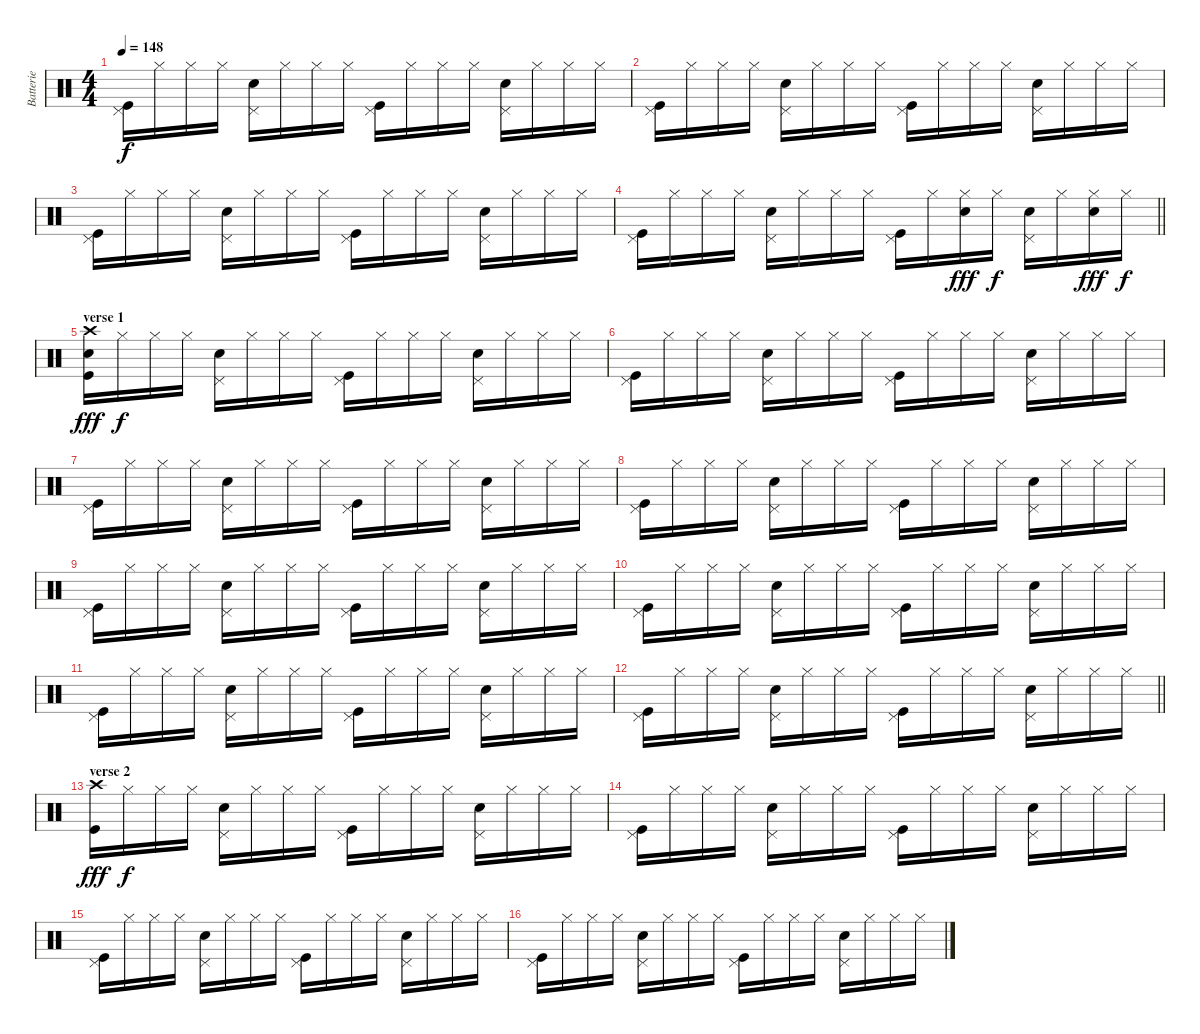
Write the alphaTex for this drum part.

\track ("Batterie" "Batterie") {instrument percussion}
\staff {score}
\articulation defaults
\ts (4 4)
\tempo 148
\clef neutral
\ks c
("Pedal Hi-Hat (hit)" "Kick (hit)").16{dy f} "Hi-Hat (closed)".16 "Hi-Hat (closed)".16 "Hi-Hat (closed)".16 ("Pedal Hi-Hat (hit)" "Electric Snare (hit)").16 "Hi-Hat (closed)".16 "Hi-Hat (closed)".16 "Hi-Hat (closed)".16 ("Pedal Hi-Hat (hit)" "Kick (hit)").16 "Hi-Hat (closed)".16 "Hi-Hat (closed)".16 "Hi-Hat (closed)".16 ("Pedal Hi-Hat (hit)" "Electric Snare (hit)").16 "Hi-Hat (closed)".16 "Hi-Hat (closed)".16 "Hi-Hat (closed)".16 |
("Pedal Hi-Hat (hit)" "Kick (hit)").16 "Hi-Hat (closed)".16 "Hi-Hat (closed)".16 "Hi-Hat (closed)".16 ("Pedal Hi-Hat (hit)" "Electric Snare (hit)").16 "Hi-Hat (closed)".16 "Hi-Hat (closed)".16 "Hi-Hat (closed)".16 ("Pedal Hi-Hat (hit)" "Kick (hit)").16 "Hi-Hat (closed)".16 "Hi-Hat (closed)".16 "Hi-Hat (closed)".16 ("Pedal Hi-Hat (hit)" "Electric Snare (hit)").16 "Hi-Hat (closed)".16 "Hi-Hat (closed)".16 "Hi-Hat (closed)".16 |
("Pedal Hi-Hat (hit)" "Kick (hit)").16 "Hi-Hat (closed)".16 "Hi-Hat (closed)".16 "Hi-Hat (closed)".16 ("Pedal Hi-Hat (hit)" "Electric Snare (hit)").16 "Hi-Hat (closed)".16 "Hi-Hat (closed)".16 "Hi-Hat (closed)".16 ("Pedal Hi-Hat (hit)" "Kick (hit)").16 "Hi-Hat (closed)".16 "Hi-Hat (closed)".16 "Hi-Hat (closed)".16 ("Pedal Hi-Hat (hit)" "Electric Snare (hit)").16 "Hi-Hat (closed)".16 "Hi-Hat (closed)".16 "Hi-Hat (closed)".16 |
\barLineRight lightlight
("Pedal Hi-Hat (hit)" "Kick (hit)").16 "Hi-Hat (closed)".16 "Hi-Hat (closed)".16 "Hi-Hat (closed)".16 ("Pedal Hi-Hat (hit)" "Electric Snare (hit)").16 "Hi-Hat (closed)".16 "Hi-Hat (closed)".16 "Hi-Hat (closed)".16 ("Pedal Hi-Hat (hit)" "Kick (hit)").16 "Hi-Hat (closed)".16 ("Hi-Hat (closed)" "Electric Snare (hit)").16{dy fff} "Hi-Hat (closed)".16{dy f} ("Pedal Hi-Hat (hit)" "Electric Snare (hit)").16 "Hi-Hat (closed)".16 ("Hi-Hat (closed)" "Electric Snare (hit)").16{dy fff} "Hi-Hat (closed)".16{dy f} |
\section ("" "verse 1")
("Crash high (hit)" "Electric Snare (hit)" "Kick (hit)").16{dy fff} "Hi-Hat (closed)".16{dy f} "Hi-Hat (closed)".16 "Hi-Hat (closed)".16 ("Pedal Hi-Hat (hit)" "Electric Snare (hit)").16 "Hi-Hat (closed)".16 "Hi-Hat (closed)".16 "Hi-Hat (closed)".16 ("Pedal Hi-Hat (hit)" "Kick (hit)").16 "Hi-Hat (closed)".16 "Hi-Hat (closed)".16 "Hi-Hat (closed)".16 ("Pedal Hi-Hat (hit)" "Electric Snare (hit)").16 "Hi-Hat (closed)".16 "Hi-Hat (closed)".16 "Hi-Hat (closed)".16 |
("Pedal Hi-Hat (hit)" "Kick (hit)").16 "Hi-Hat (closed)".16 "Hi-Hat (closed)".16 "Hi-Hat (closed)".16 ("Pedal Hi-Hat (hit)" "Electric Snare (hit)").16 "Hi-Hat (closed)".16 "Hi-Hat (closed)".16 "Hi-Hat (closed)".16 ("Pedal Hi-Hat (hit)" "Kick (hit)").16 "Hi-Hat (closed)".16 "Hi-Hat (closed)".16 "Hi-Hat (closed)".16 ("Pedal Hi-Hat (hit)" "Electric Snare (hit)").16 "Hi-Hat (closed)".16 "Hi-Hat (closed)".16 "Hi-Hat (closed)".16 |
("Pedal Hi-Hat (hit)" "Kick (hit)").16 "Hi-Hat (closed)".16 "Hi-Hat (closed)".16 "Hi-Hat (closed)".16 ("Pedal Hi-Hat (hit)" "Electric Snare (hit)").16 "Hi-Hat (closed)".16 "Hi-Hat (closed)".16 "Hi-Hat (closed)".16 ("Pedal Hi-Hat (hit)" "Kick (hit)").16 "Hi-Hat (closed)".16 "Hi-Hat (closed)".16 "Hi-Hat (closed)".16 ("Pedal Hi-Hat (hit)" "Electric Snare (hit)").16 "Hi-Hat (closed)".16 "Hi-Hat (closed)".16 "Hi-Hat (closed)".16 |
("Pedal Hi-Hat (hit)" "Kick (hit)").16 "Hi-Hat (closed)".16 "Hi-Hat (closed)".16 "Hi-Hat (closed)".16 ("Pedal Hi-Hat (hit)" "Electric Snare (hit)").16 "Hi-Hat (closed)".16 "Hi-Hat (closed)".16 "Hi-Hat (closed)".16 ("Pedal Hi-Hat (hit)" "Kick (hit)").16 "Hi-Hat (closed)".16 "Hi-Hat (closed)".16 "Hi-Hat (closed)".16 ("Pedal Hi-Hat (hit)" "Electric Snare (hit)").16 "Hi-Hat (closed)".16 "Hi-Hat (closed)".16 "Hi-Hat (closed)".16 |
("Pedal Hi-Hat (hit)" "Kick (hit)").16 "Hi-Hat (closed)".16 "Hi-Hat (closed)".16 "Hi-Hat (closed)".16 ("Pedal Hi-Hat (hit)" "Electric Snare (hit)").16 "Hi-Hat (closed)".16 "Hi-Hat (closed)".16 "Hi-Hat (closed)".16 ("Pedal Hi-Hat (hit)" "Kick (hit)").16 "Hi-Hat (closed)".16 "Hi-Hat (closed)".16 "Hi-Hat (closed)".16 ("Pedal Hi-Hat (hit)" "Electric Snare (hit)").16 "Hi-Hat (closed)".16 "Hi-Hat (closed)".16 "Hi-Hat (closed)".16 |
("Pedal Hi-Hat (hit)" "Kick (hit)").16 "Hi-Hat (closed)".16 "Hi-Hat (closed)".16 "Hi-Hat (closed)".16 ("Pedal Hi-Hat (hit)" "Electric Snare (hit)").16 "Hi-Hat (closed)".16 "Hi-Hat (closed)".16 "Hi-Hat (closed)".16 ("Pedal Hi-Hat (hit)" "Kick (hit)").16 "Hi-Hat (closed)".16 "Hi-Hat (closed)".16 "Hi-Hat (closed)".16 ("Pedal Hi-Hat (hit)" "Electric Snare (hit)").16 "Hi-Hat (closed)".16 "Hi-Hat (closed)".16 "Hi-Hat (closed)".16 |
("Pedal Hi-Hat (hit)" "Kick (hit)").16 "Hi-Hat (closed)".16 "Hi-Hat (closed)".16 "Hi-Hat (closed)".16 ("Pedal Hi-Hat (hit)" "Electric Snare (hit)").16 "Hi-Hat (closed)".16 "Hi-Hat (closed)".16 "Hi-Hat (closed)".16 ("Pedal Hi-Hat (hit)" "Kick (hit)").16 "Hi-Hat (closed)".16 "Hi-Hat (closed)".16 "Hi-Hat (closed)".16 ("Pedal Hi-Hat (hit)" "Electric Snare (hit)").16 "Hi-Hat (closed)".16 "Hi-Hat (closed)".16 "Hi-Hat (closed)".16 |
\barLineRight lightlight
("Pedal Hi-Hat (hit)" "Kick (hit)").16 "Hi-Hat (closed)".16 "Hi-Hat (closed)".16 "Hi-Hat (closed)".16 ("Pedal Hi-Hat (hit)" "Electric Snare (hit)").16 "Hi-Hat (closed)".16 "Hi-Hat (closed)".16 "Hi-Hat (closed)".16 ("Pedal Hi-Hat (hit)" "Kick (hit)").16 "Hi-Hat (closed)".16 "Hi-Hat (closed)".16 "Hi-Hat (closed)".16 ("Pedal Hi-Hat (hit)" "Electric Snare (hit)").16 "Hi-Hat (closed)".16 "Hi-Hat (closed)".16 "Hi-Hat (closed)".16 |
\section ("" "verse 2")
("Crash high (hit)" "Kick (hit)").16{dy fff} "Hi-Hat (closed)".16{dy f} "Hi-Hat (closed)".16 "Hi-Hat (closed)".16 ("Pedal Hi-Hat (hit)" "Electric Snare (hit)").16 "Hi-Hat (closed)".16 "Hi-Hat (closed)".16 "Hi-Hat (closed)".16 ("Pedal Hi-Hat (hit)" "Kick (hit)").16 "Hi-Hat (closed)".16 "Hi-Hat (closed)".16 "Hi-Hat (closed)".16 ("Pedal Hi-Hat (hit)" "Electric Snare (hit)").16 "Hi-Hat (closed)".16 "Hi-Hat (closed)".16 "Hi-Hat (closed)".16 |
("Pedal Hi-Hat (hit)" "Kick (hit)").16 "Hi-Hat (closed)".16 "Hi-Hat (closed)".16 "Hi-Hat (closed)".16 ("Pedal Hi-Hat (hit)" "Electric Snare (hit)").16 "Hi-Hat (closed)".16 "Hi-Hat (closed)".16 "Hi-Hat (closed)".16 ("Pedal Hi-Hat (hit)" "Kick (hit)").16 "Hi-Hat (closed)".16 "Hi-Hat (closed)".16 "Hi-Hat (closed)".16 ("Pedal Hi-Hat (hit)" "Electric Snare (hit)").16 "Hi-Hat (closed)".16 "Hi-Hat (closed)".16 "Hi-Hat (closed)".16 |
("Pedal Hi-Hat (hit)" "Kick (hit)").16 "Hi-Hat (closed)".16 "Hi-Hat (closed)".16 "Hi-Hat (closed)".16 ("Pedal Hi-Hat (hit)" "Electric Snare (hit)").16 "Hi-Hat (closed)".16 "Hi-Hat (closed)".16 "Hi-Hat (closed)".16 ("Pedal Hi-Hat (hit)" "Kick (hit)").16 "Hi-Hat (closed)".16 "Hi-Hat (closed)".16 "Hi-Hat (closed)".16 ("Pedal Hi-Hat (hit)" "Electric Snare (hit)").16 "Hi-Hat (closed)".16 "Hi-Hat (closed)".16 "Hi-Hat (closed)".16 |
("Pedal Hi-Hat (hit)" "Kick (hit)").16 "Hi-Hat (closed)".16 "Hi-Hat (closed)".16 "Hi-Hat (closed)".16 ("Pedal Hi-Hat (hit)" "Electric Snare (hit)").16 "Hi-Hat (closed)".16 "Hi-Hat (closed)".16 "Hi-Hat (closed)".16 ("Pedal Hi-Hat (hit)" "Kick (hit)").16 "Hi-Hat (closed)".16 "Hi-Hat (closed)".16 "Hi-Hat (closed)".16 ("Pedal Hi-Hat (hit)" "Electric Snare (hit)").16 "Hi-Hat (closed)".16 "Hi-Hat (closed)".16 "Hi-Hat (closed)".16
